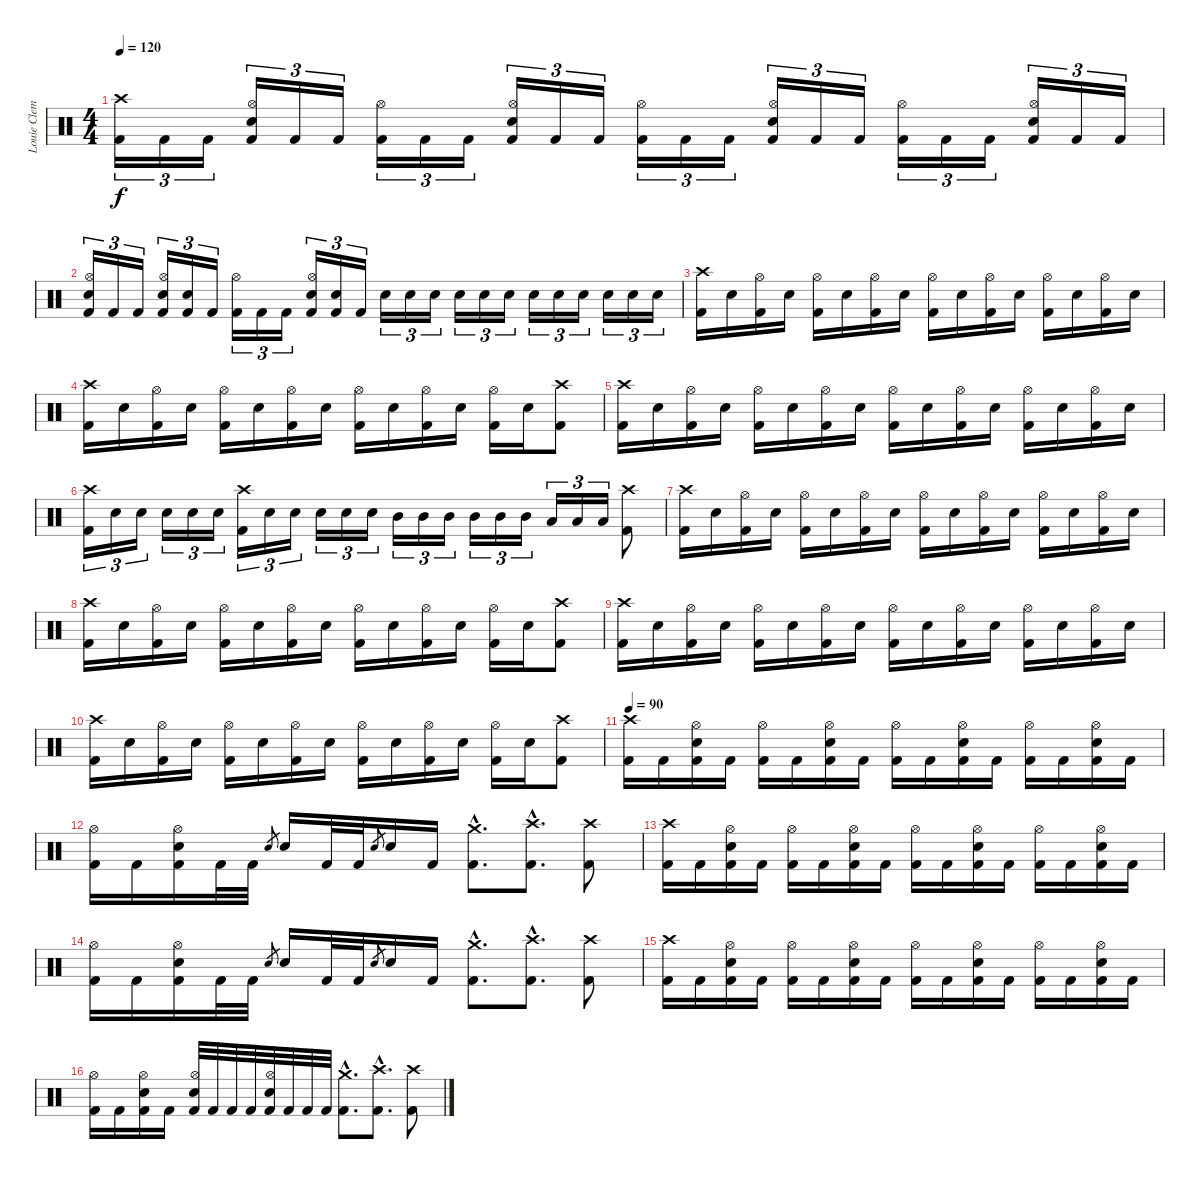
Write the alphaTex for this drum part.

\track ("Louie Clemente" "Louie Clem") {instrument percussion}
\staff {score}
\articulation defaults
\ts (4 4)
\tempo 120
\clef neutral
\ks c
("Crash high (hit)" "Kick (hit) 2").16{tu (3 2) dy f} "Kick (hit) 2".16{tu (3 2)} "Kick (hit) 2".16{tu (3 2)} ("Hi-Hat (open)" "Snare (hit) 2" "Kick (hit) 2").16{tu (3 2)} "Kick (hit) 2".16{tu (3 2)} "Kick (hit) 2".16{tu (3 2)} ("Hi-Hat (open)" "Kick (hit) 2").16{tu (3 2)} "Kick (hit) 2".16{tu (3 2)} "Kick (hit) 2".16{tu (3 2)} ("Hi-Hat (open)" "Snare (hit) 2" "Kick (hit) 2").16{tu (3 2)} "Kick (hit) 2".16{tu (3 2)} "Kick (hit) 2".16{tu (3 2)} ("Hi-Hat (open)" "Kick (hit) 2").16{tu (3 2)} "Kick (hit) 2".16{tu (3 2)} "Kick (hit) 2".16{tu (3 2)} ("Hi-Hat (open)" "Snare (hit) 2" "Kick (hit) 2").16{tu (3 2)} "Kick (hit) 2".16{tu (3 2)} "Kick (hit) 2".16{tu (3 2)} ("Hi-Hat (open)" "Kick (hit) 2").16{tu (3 2)} "Kick (hit) 2".16{tu (3 2)} "Kick (hit) 2".16{tu (3 2)} ("Hi-Hat (open)" "Snare (hit) 2" "Kick (hit) 2").16{tu (3 2)} "Kick (hit) 2".16{tu (3 2)} "Kick (hit) 2".16{tu (3 2)} |
("Hi-Hat (open)" "Snare (hit) 2" "Kick (hit) 2").16{tu (3 2)} "Kick (hit) 2".16{tu (3 2)} "Kick (hit) 2".16{tu (3 2)} ("Hi-Hat (open)" "Snare (hit) 2" "Kick (hit) 2").16{tu (3 2)} ("Snare (hit) 2" "Kick (hit) 2").16{tu (3 2)} "Kick (hit) 2".16{tu (3 2)} ("Hi-Hat (open)" "Kick (hit) 2").16{tu (3 2)} "Kick (hit) 2".16{tu (3 2)} "Kick (hit) 2".16{tu (3 2)} ("Hi-Hat (open)" "Snare (hit) 2" "Kick (hit) 2").16{tu (3 2)} ("Snare (hit) 2" "Kick (hit) 2").16{tu (3 2)} "Kick (hit) 2".16{tu (3 2)} "Snare (hit) 2".16{tu (3 2)} "Snare (hit) 2".16{tu (3 2)} "Snare (hit) 2".16{tu (3 2)} "Snare (hit) 2".16{tu (3 2)} "Snare (hit) 2".16{tu (3 2)} "Snare (hit) 2".16{tu (3 2)} "Snare (hit) 2".16{tu (3 2)} "Snare (hit) 2".16{tu (3 2)} "Snare (hit) 2".16{tu (3 2)} "Snare (hit) 2".16{tu (3 2)} "Snare (hit) 2".16{tu (3 2)} "Snare (hit) 2".16{tu (3 2)} |
("Crash high (hit)" "Kick (hit) 2").16 "Snare (hit) 2".16 ("Hi-Hat (open)" "Kick (hit) 2").16 "Snare (hit) 2".16 ("Hi-Hat (open)" "Kick (hit) 2").16 "Snare (hit) 2".16 ("Hi-Hat (open)" "Kick (hit) 2").16 "Snare (hit) 2".16 ("Hi-Hat (open)" "Kick (hit) 2").16 "Snare (hit) 2".16 ("Hi-Hat (open)" "Kick (hit) 2").16 "Snare (hit) 2".16 ("Hi-Hat (open)" "Kick (hit) 2").16 "Snare (hit) 2".16 ("Hi-Hat (open)" "Kick (hit) 2").16 "Snare (hit) 2".16 |
("Crash high (hit)" "Kick (hit) 2").16 "Snare (hit) 2".16 ("Hi-Hat (open)" "Kick (hit) 2").16 "Snare (hit) 2".16 ("Hi-Hat (open)" "Kick (hit) 2").16 "Snare (hit) 2".16 ("Hi-Hat (open)" "Kick (hit) 2").16 "Snare (hit) 2".16 ("Hi-Hat (open)" "Kick (hit) 2").16 "Snare (hit) 2".16 ("Hi-Hat (open)" "Kick (hit) 2").16 "Snare (hit) 2".16 ("Hi-Hat (open)" "Kick (hit) 2").16 "Snare (hit) 2".16 ("Crash high (hit)" "Kick (hit) 2").8 |
("Crash high (hit)" "Kick (hit) 2").16 "Snare (hit) 2".16 ("Hi-Hat (open)" "Kick (hit) 2").16 "Snare (hit) 2".16 ("Hi-Hat (open)" "Kick (hit) 2").16 "Snare (hit) 2".16 ("Hi-Hat (open)" "Kick (hit) 2").16 "Snare (hit) 2".16 ("Hi-Hat (open)" "Kick (hit) 2").16 "Snare (hit) 2".16 ("Hi-Hat (open)" "Kick (hit) 2").16 "Snare (hit) 2".16 ("Hi-Hat (open)" "Kick (hit) 2").16 "Snare (hit) 2".16 ("Hi-Hat (open)" "Kick (hit) 2").16 "Snare (hit) 2".16 |
("Crash high (hit)" "Kick (hit) 2").16{tu (3 2)} "Snare (hit) 2".16{tu (3 2)} "Snare (hit) 2".16{tu (3 2)} "Snare (hit) 2".16{tu (3 2)} "Snare (hit) 2".16{tu (3 2)} "Snare (hit) 2".16{tu (3 2)} ("Crash high (hit)" "Kick (hit) 2").16{tu (3 2)} "Snare (hit) 2".16{tu (3 2)} "Snare (hit) 2".16{tu (3 2)} "Snare (hit) 2".16{tu (3 2)} "Snare (hit) 2".16{tu (3 2)} "Snare (hit) 2".16{tu (3 2)} "Mid Tom (hit)".16{tu (3 2)} "Mid Tom (hit)".16{tu (3 2)} "Mid Tom (hit)".16{tu (3 2)} "Mid Tom (hit)".16{tu (3 2)} "Mid Tom (hit)".16{tu (3 2)} "Mid Tom (hit)".16{tu (3 2)} "Low Tom (hit)".16{tu (3 2)} "Low Tom (hit)".16{tu (3 2)} "Low Tom (hit)".16{tu (3 2)} ("Crash high (hit)" "Kick (hit) 2").8 |
("Crash high (hit)" "Kick (hit) 2").16 "Snare (hit) 2".16 ("Hi-Hat (open)" "Kick (hit) 2").16 "Snare (hit) 2".16 ("Hi-Hat (open)" "Kick (hit) 2").16 "Snare (hit) 2".16 ("Hi-Hat (open)" "Kick (hit) 2").16 "Snare (hit) 2".16 ("Hi-Hat (open)" "Kick (hit) 2").16 "Snare (hit) 2".16 ("Hi-Hat (open)" "Kick (hit) 2").16 "Snare (hit) 2".16 ("Hi-Hat (open)" "Kick (hit) 2").16 "Snare (hit) 2".16 ("Hi-Hat (open)" "Kick (hit) 2").16 "Snare (hit) 2".16 |
("Crash high (hit)" "Kick (hit) 2").16 "Snare (hit) 2".16 ("Hi-Hat (open)" "Kick (hit) 2").16 "Snare (hit) 2".16 ("Hi-Hat (open)" "Kick (hit) 2").16 "Snare (hit) 2".16 ("Hi-Hat (open)" "Kick (hit) 2").16 "Snare (hit) 2".16 ("Hi-Hat (open)" "Kick (hit) 2").16 "Snare (hit) 2".16 ("Hi-Hat (open)" "Kick (hit) 2").16 "Snare (hit) 2".16 ("Hi-Hat (open)" "Kick (hit) 2").16 "Snare (hit) 2".16 ("Crash high (hit)" "Kick (hit) 2").8 |
("Crash high (hit)" "Kick (hit) 2").16 "Snare (hit) 2".16 ("Hi-Hat (open)" "Kick (hit) 2").16 "Snare (hit) 2".16 ("Hi-Hat (open)" "Kick (hit) 2").16 "Snare (hit) 2".16 ("Hi-Hat (open)" "Kick (hit) 2").16 "Snare (hit) 2".16 ("Hi-Hat (open)" "Kick (hit) 2").16 "Snare (hit) 2".16 ("Hi-Hat (open)" "Kick (hit) 2").16 "Snare (hit) 2".16 ("Hi-Hat (open)" "Kick (hit) 2").16 "Snare (hit) 2".16 ("Hi-Hat (open)" "Kick (hit) 2").16 "Snare (hit) 2".16 |
("Crash high (hit)" "Kick (hit) 2").16 "Snare (hit) 2".16 ("Hi-Hat (open)" "Kick (hit) 2").16 "Snare (hit) 2".16 ("Hi-Hat (open)" "Kick (hit) 2").16 "Snare (hit) 2".16 ("Hi-Hat (open)" "Kick (hit) 2").16 "Snare (hit) 2".16 ("Hi-Hat (open)" "Kick (hit) 2").16 "Snare (hit) 2".16 ("Hi-Hat (open)" "Kick (hit) 2").16 "Snare (hit) 2".16 ("Hi-Hat (open)" "Kick (hit) 2").16 "Snare (hit) 2".16 ("Crash high (hit)" "Kick (hit) 2").8 |
\tempo 90
("Crash high (hit)" "Kick (hit) 2").16 "Kick (hit) 2".16 ("Hi-Hat (open)" "Snare (hit) 2" "Kick (hit) 2").16 "Kick (hit) 2".16 ("Hi-Hat (open)" "Kick (hit) 2").16 "Kick (hit) 2".16 ("Hi-Hat (open)" "Snare (hit) 2" "Kick (hit) 2").16 "Kick (hit) 2".16 ("Hi-Hat (open)" "Kick (hit) 2").16 "Kick (hit) 2".16 ("Hi-Hat (open)" "Snare (hit) 2" "Kick (hit) 2").16 "Kick (hit) 2".16 ("Hi-Hat (open)" "Kick (hit) 2").16 "Kick (hit) 2".16 ("Hi-Hat (open)" "Snare (hit) 2" "Kick (hit) 2").16 "Kick (hit) 2".16 |
("Hi-Hat (open)" "Kick (hit) 2").16 "Kick (hit) 2".16 ("Hi-Hat (open)" "Snare (hit) 2" "Kick (hit) 2").16 "Kick (hit) 2".32 "Kick (hit) 2".32 "Snare (hit) 2".8{gr} "Snare (hit) 2".16 "Kick (hit) 2".32 "Kick (hit) 2".32 "Snare (hit) 2".8{gr} "Snare (hit) 2".16 "Kick (hit) 2".16 ("Crash medium (hit)"{hac} "Kick (hit) 2"{hac}).8{d} ("Crash high (hit)"{hac} "Kick (hit) 2"{hac}).8{d} ("Crash high (hit)" "Kick (hit) 2").8 |
("Crash high (hit)" "Kick (hit) 2").16 "Kick (hit) 2".16 ("Hi-Hat (open)" "Snare (hit) 2" "Kick (hit) 2").16 "Kick (hit) 2".16 ("Hi-Hat (open)" "Kick (hit) 2").16 "Kick (hit) 2".16 ("Hi-Hat (open)" "Snare (hit) 2" "Kick (hit) 2").16 "Kick (hit) 2".16 ("Hi-Hat (open)" "Kick (hit) 2").16 "Kick (hit) 2".16 ("Hi-Hat (open)" "Snare (hit) 2" "Kick (hit) 2").16 "Kick (hit) 2".16 ("Hi-Hat (open)" "Kick (hit) 2").16 "Kick (hit) 2".16 ("Hi-Hat (open)" "Snare (hit) 2" "Kick (hit) 2").16 "Kick (hit) 2".16 |
("Hi-Hat (open)" "Kick (hit) 2").16 "Kick (hit) 2".16 ("Hi-Hat (open)" "Snare (hit) 2" "Kick (hit) 2").16 "Kick (hit) 2".32 "Kick (hit) 2".32 "Snare (hit) 2".8{gr} "Snare (hit) 2".16 "Kick (hit) 2".32 "Kick (hit) 2".32 "Snare (hit) 2".8{gr} "Snare (hit) 2".16 "Kick (hit) 2".16 ("Crash medium (hit)"{hac} "Kick (hit) 2"{hac}).8{d} ("Crash high (hit)"{hac} "Kick (hit) 2"{hac}).8{d} ("Crash high (hit)" "Kick (hit) 2").8 |
("Crash high (hit)" "Kick (hit) 2").16 "Kick (hit) 2".16 ("Hi-Hat (open)" "Snare (hit) 2" "Kick (hit) 2").16 "Kick (hit) 2".16 ("Hi-Hat (open)" "Kick (hit) 2").16 "Kick (hit) 2".16 ("Hi-Hat (open)" "Snare (hit) 2" "Kick (hit) 2").16 "Kick (hit) 2".16 ("Hi-Hat (open)" "Kick (hit) 2").16 "Kick (hit) 2".16 ("Hi-Hat (open)" "Snare (hit) 2" "Kick (hit) 2").16 "Kick (hit) 2".16 ("Hi-Hat (open)" "Kick (hit) 2").16 "Kick (hit) 2".16 ("Hi-Hat (open)" "Snare (hit) 2" "Kick (hit) 2").16 "Kick (hit) 2".16 |
("Hi-Hat (open)" "Kick (hit) 2").16 "Kick (hit) 2".16 ("Hi-Hat (open)" "Snare (hit) 2" "Kick (hit) 2").16 "Kick (hit) 2".16 ("Hi-Hat (open)" "Snare (hit) 2" "Kick (hit) 2").32 "Kick (hit) 2".32 "Kick (hit) 2".32 "Kick (hit) 2".32 ("Hi-Hat (open)" "Snare (hit) 2" "Kick (hit) 2").32 "Kick (hit) 2".32 "Kick (hit) 2".32 "Kick (hit) 2".32 ("Crash medium (hit)"{hac} "Kick (hit) 2"{hac}).8{d} ("Crash high (hit)"{hac} "Kick (hit) 2"{hac}).8{d} ("Crash high (hit)" "Kick (hit) 2").8
